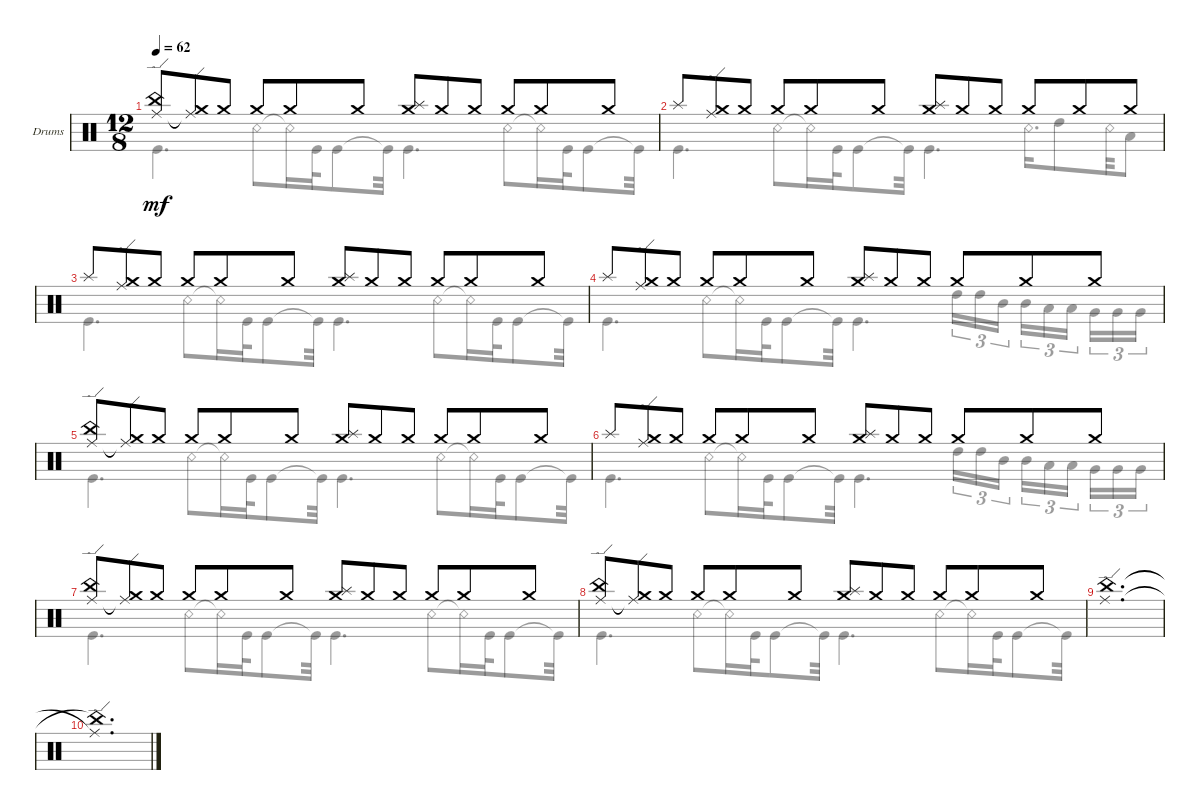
\bracketExtendMode groupsimilarinstruments
\firstSystemTrackNameOrientation horizontal
\otherSystemsTrackNameOrientation horizontal
\track ("Drums - Nick Mason" "Drums") {instrument percussion}
\staff {score}
\articulation defaults
\voice
\ts (12 8)
\tempo 62
\clef neutral
\scale
0.333333
\ks c
("China (hit)" "Ride (edge)").8{dy mf} ("Crash medium (hit)" "Ride (edge)"{t}).8 "Crash medium (hit)".8 "Crash medium (hit)".8 "Crash medium (hit)".8 "Crash medium (hit)".8 ("Crash medium (hit)" "Splash (hit)").8 "Crash medium (hit)".8 "Crash medium (hit)".8 "Crash medium (hit)".8 "Crash medium (hit)".8 "Crash medium (hit)".8 |
\scale
0.333333 "Splash (hit)".8 ("Crash medium (hit)" "Ride (edge)").8 "Crash medium (hit)".8 "Crash medium (hit)".8 "Crash medium (hit)".8 "Crash medium (hit)".8 ("Crash medium (hit)" "Splash (hit)").8 "Crash medium (hit)".8 "Crash medium (hit)".8 "Crash medium (hit)".8 "Crash medium (hit)".8 "Crash medium (hit)".8 |
\scale
0.333333 "Splash (hit)".8 ("Crash medium (hit)" "Ride (edge)").8 "Crash medium (hit)".8 "Crash medium (hit)".8 "Crash medium (hit)".8 "Crash medium (hit)".8 ("Crash medium (hit)" "Splash (hit)").8 "Crash medium (hit)".8 "Crash medium (hit)".8 "Crash medium (hit)".8 "Crash medium (hit)".8 "Crash medium (hit)".8 |
\scale
0.333333 "Splash (hit)".8 ("Crash medium (hit)" "Ride (edge)").8 "Crash medium (hit)".8 "Crash medium (hit)".8 "Crash medium (hit)".8 "Crash medium (hit)".8 ("Crash medium (hit)" "Splash (hit)").8 "Crash medium (hit)".8 "Crash medium (hit)".8 "Crash medium (hit)".8 "Crash medium (hit)".8 "Crash medium (hit)".8 |
\scale
0.333333 ("China (hit)" "Ride (edge)").8 ("Crash medium (hit)" "Ride (edge)"{t}).8 "Crash medium (hit)".8 "Crash medium (hit)".8 "Crash medium (hit)".8 "Crash medium (hit)".8 ("Crash medium (hit)" "Splash (hit)").8 "Crash medium (hit)".8 "Crash medium (hit)".8 "Crash medium (hit)".8 "Crash medium (hit)".8 "Crash medium (hit)".8 |
\scale
0.333333 "Splash (hit)".8 ("Crash medium (hit)" "Ride (edge)").8 "Crash medium (hit)".8 "Crash medium (hit)".8 "Crash medium (hit)".8 "Crash medium (hit)".8 ("Crash medium (hit)" "Splash (hit)").8 "Crash medium (hit)".8 "Crash medium (hit)".8 "Crash medium (hit)".8 "Crash medium (hit)".8 "Crash medium (hit)".8 |
\scale
0.333333 ("China (hit)" "Ride (edge)").8 ("Crash medium (hit)" "Ride (edge)"{t}).8 "Crash medium (hit)".8 "Crash medium (hit)".8 "Crash medium (hit)".8 "Crash medium (hit)".8 ("Crash medium (hit)" "Splash (hit)").8 "Crash medium (hit)".8 "Crash medium (hit)".8 "Crash medium (hit)".8 "Crash medium (hit)".8 "Crash medium (hit)".8 |
("China (hit)" "Ride (edge)").8 ("Crash medium (hit)" "Ride (edge)"{t}).8 "Crash medium (hit)".8 "Crash medium (hit)".8 "Crash medium (hit)".8 "Crash medium (hit)".8 ("Crash medium (hit)" "Splash (hit)").8 "Crash medium (hit)".8 "Crash medium (hit)".8 "Crash medium (hit)".8 "Crash medium (hit)".8 "Crash medium (hit)".8 |
("China (hit)" "Ride (edge)").1{d} |
("Ride (edge)"{t} "China (hit)"{t}).1{d}
\voice
\clef neutral
\ottava regular
\simile none
\scale
0.333333
\ks c "Kick (hit)".4{d dy mf} "Snare (rim shot)".8 "Snare (rim shot)"{t}.16 "Kick (hit)".32 "Kick (hit)".8 "Kick (hit)"{t}.32 "Kick (hit)".4{d} "Snare (rim shot)".8 "Snare (rim shot)"{t}.16 "Kick (hit)".32 "Kick (hit)".8 "Kick (hit)"{t}.32
|
\scale
0.333333 "Kick (hit)".4{d} "Snare (rim shot)".8 "Snare (rim shot)"{t}.16 "Kick (hit)".32 "Kick (hit)".8 "Kick (hit)"{t}.32 "Kick (hit)".4{d} "Snare (rim shot)".16{d} "High Tom (hit)".8 "Snare (rim shot)".32 "Low Tom (hit)".8 |
\scale
0.333333 "Kick (hit)".4{d} "Snare (rim shot)".8 "Snare (rim shot)"{t}.16 "Kick (hit)".32 "Kick (hit)".8 "Kick (hit)"{t}.32 "Kick (hit)".4{d} "Snare (rim shot)".8 "Snare (rim shot)"{t}.16 "Kick (hit)".32 "Kick (hit)".8 "Kick (hit)"{t}.32 |
\scale
0.333333 "Kick (hit)".4{d} "Snare (rim shot)".8 "Snare (rim shot)"{t}.16 "Kick (hit)".32 "Kick (hit)".8 "Kick (hit)"{t}.32 "Kick (hit)".4{d} "High Tom (hit)".16{tu (3 2)} "High Tom (hit)".16{tu (3 2)} "Mid Tom (hit)".16{tu (3 2)} "Mid Tom (hit)".16{tu (3 2)} "Low Tom (hit)".16{tu (3 2)} "Low Tom (hit)".16{tu (3 2)} "Very Low Tom (hit)".16{tu (3 2)} "Very Low Tom (hit)".16{tu (3 2)} "Very Low Tom (hit)".16{tu (3 2)} |
\scale
0.333333 "Kick (hit)".4{d} "Snare (rim shot)".8 "Snare (rim shot)"{t}.16 "Kick (hit)".32 "Kick (hit)".8 "Kick (hit)"{t}.32 "Kick (hit)".4{d} "Snare (rim shot)".8 "Snare (rim shot)"{t}.16 "Kick (hit)".32 "Kick (hit)".8 "Kick (hit)"{t}.32 |
\scale
0.333333 "Kick (hit)".4{d} "Snare (rim shot)".8 "Snare (rim shot)"{t}.16 "Kick (hit)".32 "Kick (hit)".8 "Kick (hit)"{t}.32 "Kick (hit)".4{d} "High Tom (hit)".16{tu (3 2)} "High Tom (hit)".16{tu (3 2)} "Mid Tom (hit)".16{tu (3 2)} "Mid Tom (hit)".16{tu (3 2)} "Low Tom (hit)".16{tu (3 2)} "Low Tom (hit)".16{tu (3 2)} "Very Low Tom (hit)".16{tu (3 2)} "Very Low Tom (hit)".16{tu (3 2)} "Very Low Tom (hit)".16{tu (3 2)} |
\scale
0.333333 "Kick (hit)".4{d} "Snare (rim shot)".8 "Snare (rim shot)"{t}.16 "Kick (hit)".32 "Kick (hit)".8 "Kick (hit)"{t}.32 "Kick (hit)".4{d} "Snare (rim shot)".8 "Snare (rim shot)"{t}.16 "Kick (hit)".32 "Kick (hit)".8 "Kick (hit)"{t}.32 |
"Kick (hit)".4{d} "Snare (rim shot)".8 "Snare (rim shot)"{t}.16 "Kick (hit)".32 "Kick (hit)".8 "Kick (hit)"{t}.32 "Kick (hit)".4{d} "Snare (rim shot)".8 "Snare (rim shot)"{t}.16 "Kick (hit)".32 "Kick (hit)".8 "Kick (hit)"{t}.32 |
|
